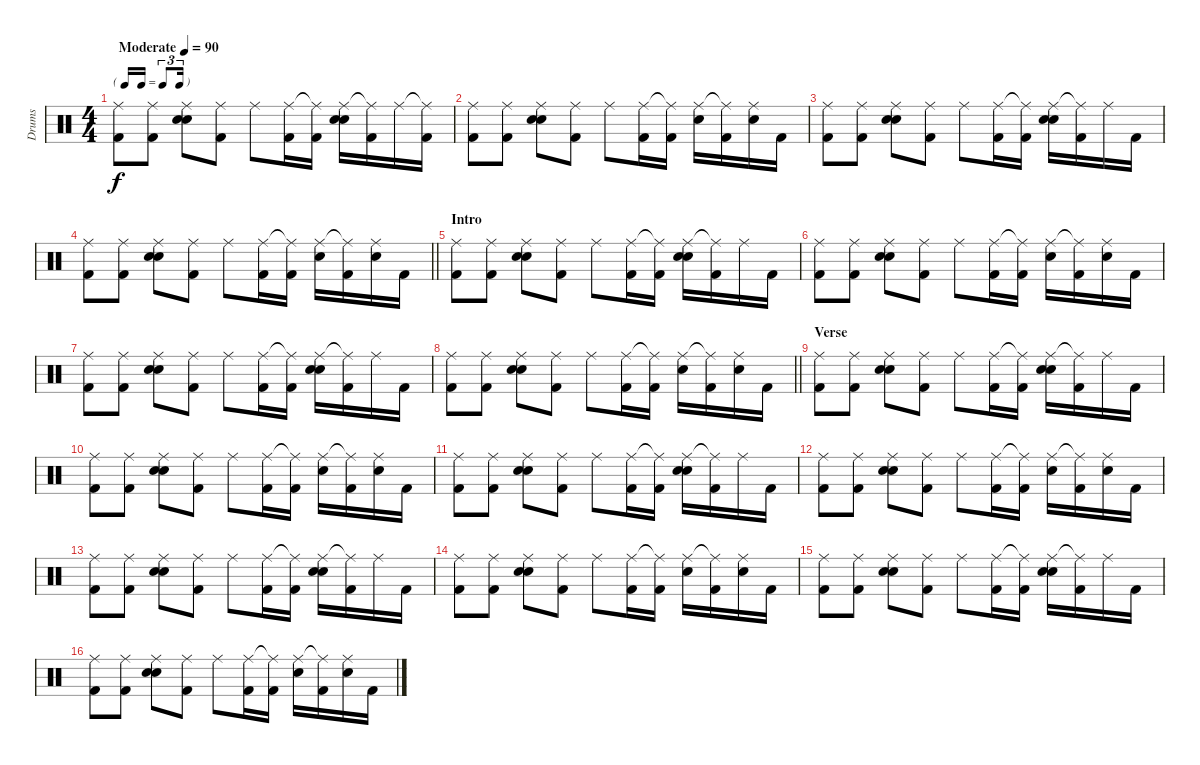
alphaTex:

\track ("Drums" "Drums") {instrument percussion}
\staff {score}
\articulation defaults
\ts (4 4)
\tf triplet16th
\tempo (90 "Moderate")
\clef neutral
\ks c
("Ride (middle)" "Kick (hit) 2").8{dy f} ("Ride (middle)" "Kick (hit) 2").8 ("Ride (middle)" "Hand Clap (hit)" "Snare (hit) 2").8 ("Ride (middle)" "Kick (hit) 2").8 "Ride (middle)".8 ("Ride (middle)" "Kick (hit) 2").16 ("Ride (middle)"{t} "Kick (hit) 2").16 ("Ride (middle)" "Hand Clap (hit)" "Snare (hit) 2").16 ("Ride (middle)"{t} "Kick (hit) 2").16 "Ride (middle)".16 ("Ride (middle)"{t} "Kick (hit) 2").16 |
("Ride (middle)" "Kick (hit) 2").8 ("Ride (middle)" "Kick (hit) 2").8 ("Ride (middle)" "Hand Clap (hit)" "Snare (hit) 2").8 ("Ride (middle)" "Kick (hit) 2").8 "Ride (middle)".8 ("Ride (middle)" "Kick (hit) 2").16 ("Ride (middle)"{t} "Kick (hit) 2").16 ("Ride (middle)" "Hand Clap (hit)").16 ("Ride (middle)"{t} "Kick (hit) 2").16 ("Ride (middle)" "Snare (hit) 2").16 "Kick (hit) 2".16 |
("Ride (middle)" "Kick (hit) 2").8 ("Ride (middle)" "Kick (hit) 2").8 ("Ride (middle)" "Hand Clap (hit)" "Snare (hit) 2").8 ("Ride (middle)" "Kick (hit) 2").8 "Ride (middle)".8 ("Ride (middle)" "Kick (hit) 2").16 ("Ride (middle)"{t} "Kick (hit) 2").16 ("Ride (middle)" "Hand Clap (hit)" "Snare (hit) 2").16 ("Ride (middle)"{t} "Kick (hit) 2").16 "Ride (middle)".16 "Kick (hit) 2".16 |
\barLineRight lightlight
("Ride (middle)" "Kick (hit) 2").8 ("Ride (middle)" "Kick (hit) 2").8 ("Ride (middle)" "Hand Clap (hit)" "Snare (hit) 2").8 ("Ride (middle)" "Kick (hit) 2").8 "Ride (middle)".8 ("Ride (middle)" "Kick (hit) 2").16 ("Ride (middle)"{t} "Kick (hit) 2").16 ("Ride (middle)" "Hand Clap (hit)").16 ("Ride (middle)"{t} "Kick (hit) 2").16 ("Ride (middle)" "Snare (hit) 2").16 "Kick (hit) 2".16 |
\section ("" "Intro")
("Ride (middle)" "Kick (hit) 2").8 ("Ride (middle)" "Kick (hit) 2").8 ("Ride (middle)" "Hand Clap (hit)" "Snare (hit) 2").8 ("Ride (middle)" "Kick (hit) 2").8 "Ride (middle)".8 ("Ride (middle)" "Kick (hit) 2").16 ("Ride (middle)"{t} "Kick (hit) 2").16 ("Ride (middle)" "Hand Clap (hit)" "Snare (hit) 2").16 ("Ride (middle)"{t} "Kick (hit) 2").16 "Ride (middle)".16 "Kick (hit) 2".16 |
("Ride (middle)" "Kick (hit) 2").8 ("Ride (middle)" "Kick (hit) 2").8 ("Ride (middle)" "Hand Clap (hit)" "Snare (hit) 2").8 ("Ride (middle)" "Kick (hit) 2").8 "Ride (middle)".8 ("Ride (middle)" "Kick (hit) 2").16 ("Ride (middle)"{t} "Kick (hit) 2").16 ("Ride (middle)" "Hand Clap (hit)").16 ("Ride (middle)"{t} "Kick (hit) 2").16 ("Ride (middle)" "Snare (hit) 2").16 "Kick (hit) 2".16 |
("Ride (middle)" "Kick (hit) 2").8 ("Ride (middle)" "Kick (hit) 2").8 ("Ride (middle)" "Hand Clap (hit)" "Snare (hit) 2").8 ("Ride (middle)" "Kick (hit) 2").8 "Ride (middle)".8 ("Ride (middle)" "Kick (hit) 2").16 ("Ride (middle)"{t} "Kick (hit) 2").16 ("Ride (middle)" "Hand Clap (hit)" "Snare (hit) 2").16 ("Ride (middle)"{t} "Kick (hit) 2").16 "Ride (middle)".16 "Kick (hit) 2".16 |
\barLineRight lightlight
("Ride (middle)" "Kick (hit) 2").8 ("Ride (middle)" "Kick (hit) 2").8 ("Ride (middle)" "Hand Clap (hit)" "Snare (hit) 2").8 ("Ride (middle)" "Kick (hit) 2").8 "Ride (middle)".8 ("Ride (middle)" "Kick (hit) 2").16 ("Ride (middle)"{t} "Kick (hit) 2").16 ("Ride (middle)" "Hand Clap (hit)").16 ("Ride (middle)"{t} "Kick (hit) 2").16 ("Ride (middle)" "Snare (hit) 2").16 "Kick (hit) 2".16 |
\section ("" "Verse")
("Ride (middle)" "Kick (hit) 2").8 ("Ride (middle)" "Kick (hit) 2").8 ("Ride (middle)" "Hand Clap (hit)" "Snare (hit) 2").8 ("Ride (middle)" "Kick (hit) 2").8 "Ride (middle)".8 ("Ride (middle)" "Kick (hit) 2").16 ("Ride (middle)"{t} "Kick (hit) 2").16 ("Ride (middle)" "Hand Clap (hit)" "Snare (hit) 2").16 ("Ride (middle)"{t} "Kick (hit) 2").16 "Ride (middle)".16 "Kick (hit) 2".16 |
("Ride (middle)" "Kick (hit) 2").8 ("Ride (middle)" "Kick (hit) 2").8 ("Ride (middle)" "Hand Clap (hit)" "Snare (hit) 2").8 ("Ride (middle)" "Kick (hit) 2").8 "Ride (middle)".8 ("Ride (middle)" "Kick (hit) 2").16 ("Ride (middle)"{t} "Kick (hit) 2").16 ("Ride (middle)" "Hand Clap (hit)").16 ("Ride (middle)"{t} "Kick (hit) 2").16 ("Ride (middle)" "Snare (hit) 2").16 "Kick (hit) 2".16 |
("Ride (middle)" "Kick (hit) 2").8 ("Ride (middle)" "Kick (hit) 2").8 ("Ride (middle)" "Hand Clap (hit)" "Snare (hit) 2").8 ("Ride (middle)" "Kick (hit) 2").8 "Ride (middle)".8 ("Ride (middle)" "Kick (hit) 2").16 ("Ride (middle)"{t} "Kick (hit) 2").16 ("Ride (middle)" "Hand Clap (hit)" "Snare (hit) 2").16 ("Ride (middle)"{t} "Kick (hit) 2").16 "Ride (middle)".16 "Kick (hit) 2".16 |
("Ride (middle)" "Kick (hit) 2").8 ("Ride (middle)" "Kick (hit) 2").8 ("Ride (middle)" "Hand Clap (hit)" "Snare (hit) 2").8 ("Ride (middle)" "Kick (hit) 2").8 "Ride (middle)".8 ("Ride (middle)" "Kick (hit) 2").16 ("Ride (middle)"{t} "Kick (hit) 2").16 ("Ride (middle)" "Hand Clap (hit)").16 ("Ride (middle)"{t} "Kick (hit) 2").16 ("Ride (middle)" "Snare (hit) 2").16 "Kick (hit) 2".16 |
("Ride (middle)" "Kick (hit) 2").8 ("Ride (middle)" "Kick (hit) 2").8 ("Ride (middle)" "Hand Clap (hit)" "Snare (hit) 2").8 ("Ride (middle)" "Kick (hit) 2").8 "Ride (middle)".8 ("Ride (middle)" "Kick (hit) 2").16 ("Ride (middle)"{t} "Kick (hit) 2").16 ("Ride (middle)" "Hand Clap (hit)" "Snare (hit) 2").16 ("Ride (middle)"{t} "Kick (hit) 2").16 "Ride (middle)".16 "Kick (hit) 2".16 |
("Ride (middle)" "Kick (hit) 2").8 ("Ride (middle)" "Kick (hit) 2").8 ("Ride (middle)" "Hand Clap (hit)" "Snare (hit) 2").8 ("Ride (middle)" "Kick (hit) 2").8 "Ride (middle)".8 ("Ride (middle)" "Kick (hit) 2").16 ("Ride (middle)"{t} "Kick (hit) 2").16 ("Ride (middle)" "Hand Clap (hit)").16 ("Ride (middle)"{t} "Kick (hit) 2").16 ("Ride (middle)" "Snare (hit) 2").16 "Kick (hit) 2".16 |
("Ride (middle)" "Kick (hit) 2").8 ("Ride (middle)" "Kick (hit) 2").8 ("Ride (middle)" "Hand Clap (hit)" "Snare (hit) 2").8 ("Ride (middle)" "Kick (hit) 2").8 "Ride (middle)".8 ("Ride (middle)" "Kick (hit) 2").16 ("Ride (middle)"{t} "Kick (hit) 2").16 ("Ride (middle)" "Hand Clap (hit)" "Snare (hit) 2").16 ("Ride (middle)"{t} "Kick (hit) 2").16 "Ride (middle)".16 "Kick (hit) 2".16 |
("Ride (middle)" "Kick (hit) 2").8 ("Ride (middle)" "Kick (hit) 2").8 ("Ride (middle)" "Hand Clap (hit)" "Snare (hit) 2").8 ("Ride (middle)" "Kick (hit) 2").8 "Ride (middle)".8 ("Ride (middle)" "Kick (hit) 2").16 ("Ride (middle)"{t} "Kick (hit) 2").16 ("Ride (middle)" "Hand Clap (hit)").16 ("Ride (middle)"{t} "Kick (hit) 2").16 ("Ride (middle)" "Snare (hit) 2").16 "Kick (hit) 2".16
